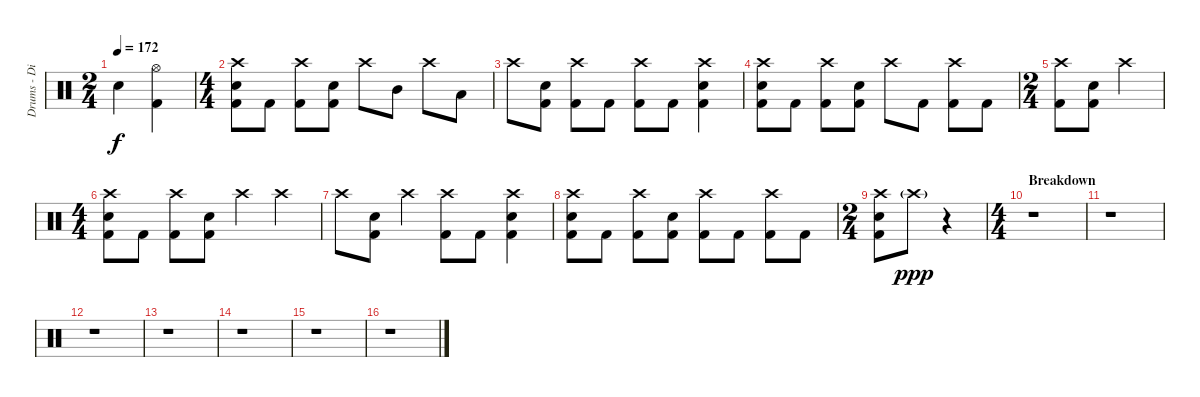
\track ("Drums - Dino Campanella" "Drums - Di") {instrument percussion}
\staff {score}
\articulation defaults
\ts (2 4)
\tempo 172
\clef neutral
\ks c "Electric Snare (hit)".4{dy f}
("Hi-Hat (open)" "Kick (hit) 2").4 |
\ts (4 4)
("Crash high (hit)" "Electric Snare (hit)" "Kick (hit) 2").8 "Kick (hit) 2".8 ("Crash high (hit)" "Kick (hit) 2").8 ("Electric Snare (hit)" "Kick (hit) 2").8 "Crash high (hit)".8 "Mid Tom (hit)".8 "Crash high (hit)".8 "Low Tom (hit)".8 |
"Crash high (hit)".8 ("Electric Snare (hit)" "Kick (hit) 2").8 ("Crash high (hit)" "Kick (hit) 2").8 "Kick (hit) 2".8 ("Crash high (hit)" "Kick (hit) 2").8 "Kick (hit) 2".8 ("Crash high (hit)" "Electric Snare (hit)" "Kick (hit) 2").4 |
("Crash high (hit)" "Electric Snare (hit)" "Kick (hit) 2").8 "Kick (hit) 2".8 ("Crash high (hit)" "Kick (hit) 2").8 ("Electric Snare (hit)" "Kick (hit) 2").8 "Crash high (hit)".8 "Kick (hit) 2".8 ("Crash high (hit)" "Kick (hit) 2").8 "Kick (hit) 2".8 |
\ts (2 4)
("Crash high (hit)" "Kick (hit) 2").8 ("Electric Snare (hit)" "Kick (hit) 2").8 "Crash high (hit)".4 |
\ts (4 4)
("Crash high (hit)" "Electric Snare (hit)" "Kick (hit) 2").8 "Kick (hit) 2".8 ("Crash high (hit)" "Kick (hit) 2").8 ("Electric Snare (hit)" "Kick (hit) 2").8 "Crash high (hit)".4 "Crash high (hit)".4 |
"Crash high (hit)".8 ("Electric Snare (hit)" "Kick (hit) 2").8 "Crash high (hit)".4 ("Crash high (hit)" "Kick (hit) 2").8 "Kick (hit) 2".8 ("Crash high (hit)" "Electric Snare (hit)" "Kick (hit) 2").4 |
("Crash high (hit)" "Electric Snare (hit)" "Kick (hit) 2").8 "Kick (hit) 2".8 ("Crash high (hit)" "Kick (hit) 2").8 ("Electric Snare (hit)" "Kick (hit) 2").8 ("Crash high (hit)" "Kick (hit) 2").8 "Kick (hit) 2".8 ("Crash high (hit)" "Kick (hit) 2").8 "Kick (hit) 2".8 |
\ts (2 4)
("Crash high (hit)" "Electric Snare (hit)" "Kick (hit) 2").8 "Crash high (hit)"{g}.8{dy ppp} r.4 |
\ts (4 4)
\section ("" "Breakdown")
r.1 |
r.1 |
r.1 |
r.1 |
r.1 |
r.1 |
r.1
